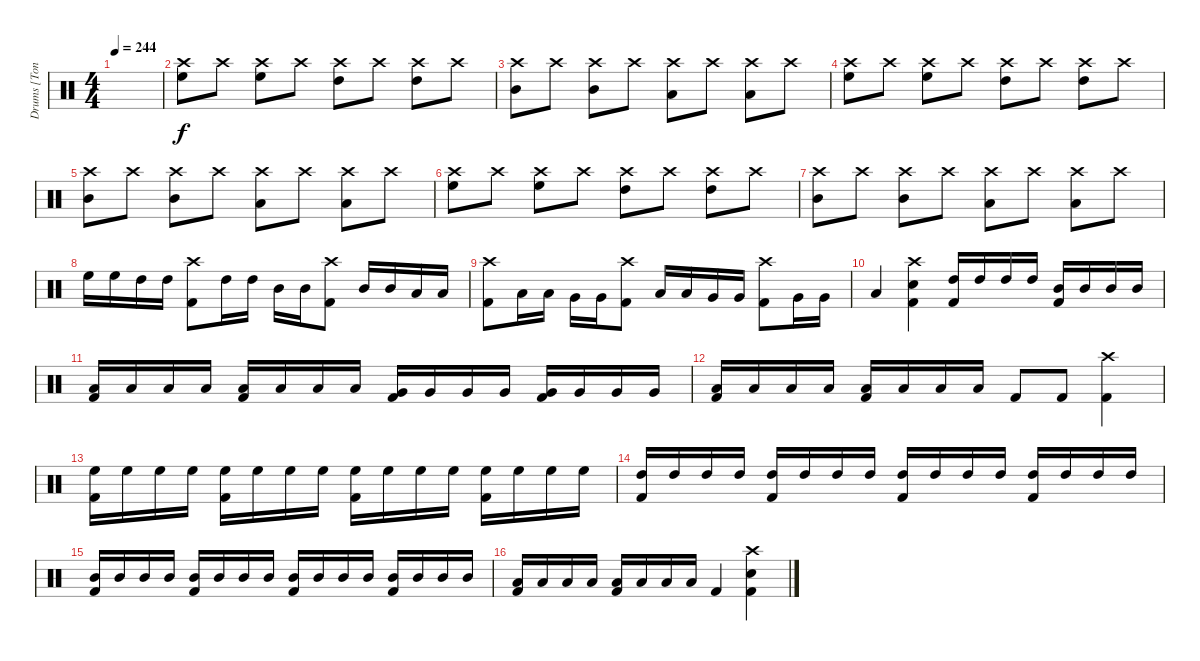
\track ("Drums [Tony Laureano]" "Drums [Ton") {instrument percussion}
\staff {score}
\articulation defaults
\ts (4 4)
\tempo 244
\clef neutral
\ks c
|
("Crash high (hit)" "High Floor Tom (hit)").8{volume 8} "Crash high (hit)".8 ("Crash high (hit)" "High Floor Tom (hit)").8 "Crash high (hit)".8 ("Crash high (hit)" "High Tom (hit)").8 "Crash high (hit)".8 ("Crash high (hit)" "High Tom (hit)").8 "Crash high (hit)".8 |
("Crash high (hit)" "Mid Tom (hit)").8 "Crash high (hit)".8 ("Crash high (hit)" "Mid Tom (hit)").8 "Crash high (hit)".8 ("Crash high (hit)" "Low Tom (hit)").8 "Crash high (hit)".8 ("Crash high (hit)" "Low Tom (hit)").8 "Crash high (hit)".8 |
("Crash high (hit)" "High Floor Tom (hit)").8 "Crash high (hit)".8 ("Crash high (hit)" "High Floor Tom (hit)").8 "Crash high (hit)".8 ("Crash high (hit)" "High Tom (hit)").8 "Crash high (hit)".8 ("Crash high (hit)" "High Tom (hit)").8 "Crash high (hit)".8 |
("Crash high (hit)" "Mid Tom (hit)").8 "Crash high (hit)".8 ("Crash high (hit)" "Mid Tom (hit)").8 "Crash high (hit)".8 ("Crash high (hit)" "Low Tom (hit)").8 "Crash high (hit)".8 ("Crash high (hit)" "Low Tom (hit)").8 "Crash high (hit)".8 |
("Crash high (hit)" "High Floor Tom (hit)").8{volume 16} "Crash high (hit)".8 ("Crash high (hit)" "High Floor Tom (hit)").8 "Crash high (hit)".8 ("Crash high (hit)" "High Tom (hit)").8 "Crash high (hit)".8 ("Crash high (hit)" "High Tom (hit)").8 "Crash high (hit)".8 |
("Crash high (hit)" "Mid Tom (hit)").8 "Crash high (hit)".8 ("Crash high (hit)" "Mid Tom (hit)").8 "Crash high (hit)".8 ("Crash high (hit)" "Low Tom (hit)").8 "Crash high (hit)".8 ("Crash high (hit)" "Low Tom (hit)").8 "Crash high (hit)".8 |
"High Floor Tom (hit)".16 "High Floor Tom (hit)".16 "High Tom (hit)".16 "High Tom (hit)".16 ("Crash high (hit)" "Kick (hit) 2").8 "High Tom (hit)".16 "High Tom (hit)".16 "Mid Tom (hit)".16 "Mid Tom (hit)".16 ("Crash high (hit)" "Kick (hit) 2").8 "Mid Tom (hit)".16 "Mid Tom (hit)".16 "Low Tom (hit)".16 "Low Tom (hit)".16 |
("Crash high (hit)" "Kick (hit) 2").8 "Low Tom (hit)".16 "Low Tom (hit)".16 "Very Low Tom (hit)".16 "Very Low Tom (hit)".16 ("Crash high (hit)" "Kick (hit) 2").8 "Low Tom (hit)".16 "Low Tom (hit)".16 "Very Low Tom (hit)".16 "Very Low Tom (hit)".16 ("Crash high (hit)" "Kick (hit) 2").8 "Very Low Tom (hit)".16 "Very Low Tom (hit)".16 |
"Low Floor Tom (hit)".4 ("Crash high (hit)" "Electric Snare (hit)" "Kick (hit) 2").4 ("High Tom (hit)" "Kick (hit) 2").16 "High Tom (hit)".16 "High Tom (hit)".16 "High Tom (hit)".16 ("Mid Tom (hit)" "Kick (hit) 2").16 "Mid Tom (hit)".16 "Mid Tom (hit)".16 "Mid Tom (hit)".16 |
("Low Tom (hit)" "Kick (hit) 2").16 "Low Tom (hit)".16 "Low Tom (hit)".16 "Low Tom (hit)".16 ("Low Tom (hit)" "Kick (hit) 2").16 "Low Tom (hit)".16 "Low Tom (hit)".16 "Low Tom (hit)".16 ("Very Low Tom (hit)" "Kick (hit) 2").16 "Very Low Tom (hit)".16 "Very Low Tom (hit)".16 "Very Low Tom (hit)".16 ("Very Low Tom (hit)" "Kick (hit) 2").16 "Very Low Tom (hit)".16 "Very Low Tom (hit)".16 "Very Low Tom (hit)".16 |
("Low Floor Tom (hit)" "Kick (hit) 2").16 "Low Floor Tom (hit)".16 "Low Floor Tom (hit)".16 "Low Floor Tom (hit)".16 ("Low Floor Tom (hit)" "Kick (hit) 2").16 "Low Floor Tom (hit)".16 "Low Floor Tom (hit)".16 "Low Floor Tom (hit)".16 "Kick (hit) 2".8 "Kick (hit) 2".8 ("Crash high (hit)" "Kick (hit) 2").4 |
("High Floor Tom (hit)" "Kick (hit) 2").16 "High Floor Tom (hit)".16 "High Floor Tom (hit)".16 "High Floor Tom (hit)".16 ("High Floor Tom (hit)" "Kick (hit) 2").16 "High Floor Tom (hit)".16 "High Floor Tom (hit)".16 "High Floor Tom (hit)".16 ("High Floor Tom (hit)" "Kick (hit) 2").16 "High Floor Tom (hit)".16 "High Floor Tom (hit)".16 "High Floor Tom (hit)".16 ("High Floor Tom (hit)" "Kick (hit) 2").16 "High Floor Tom (hit)".16 "High Floor Tom (hit)".16 "High Floor Tom (hit)".16 |
("High Tom (hit)" "Kick (hit) 2").16 "High Tom (hit)".16 "High Tom (hit)".16 "High Tom (hit)".16 ("High Tom (hit)" "Kick (hit) 2").16 "High Tom (hit)".16 "High Tom (hit)".16 "High Tom (hit)".16 ("High Tom (hit)" "Kick (hit) 2").16 "High Tom (hit)".16 "High Tom (hit)".16 "High Tom (hit)".16 ("High Tom (hit)" "Kick (hit) 2").16 "High Tom (hit)".16 "High Tom (hit)".16 "High Tom (hit)".16 |
("Mid Tom (hit)" "Kick (hit) 2").16 "Mid Tom (hit)".16 "Mid Tom (hit)".16 "Mid Tom (hit)".16 ("Mid Tom (hit)" "Kick (hit) 2").16 "Mid Tom (hit)".16 "Mid Tom (hit)".16 "Mid Tom (hit)".16 ("Mid Tom (hit)" "Kick (hit) 2").16 "Mid Tom (hit)".16 "Mid Tom (hit)".16 "Mid Tom (hit)".16 ("Mid Tom (hit)" "Kick (hit) 2").16 "Mid Tom (hit)".16 "Mid Tom (hit)".16 "Mid Tom (hit)".16 |
("Low Tom (hit)" "Kick (hit) 2").16 "Low Tom (hit)".16 "Low Tom (hit)".16 "Low Tom (hit)".16 ("Low Tom (hit)" "Kick (hit) 2").16 "Low Tom (hit)".16 "Low Tom (hit)".16 "Low Tom (hit)".16 "Kick (hit) 2".4 ("Crash high (hit)" "Electric Snare (hit)" "Kick (hit) 2").4
